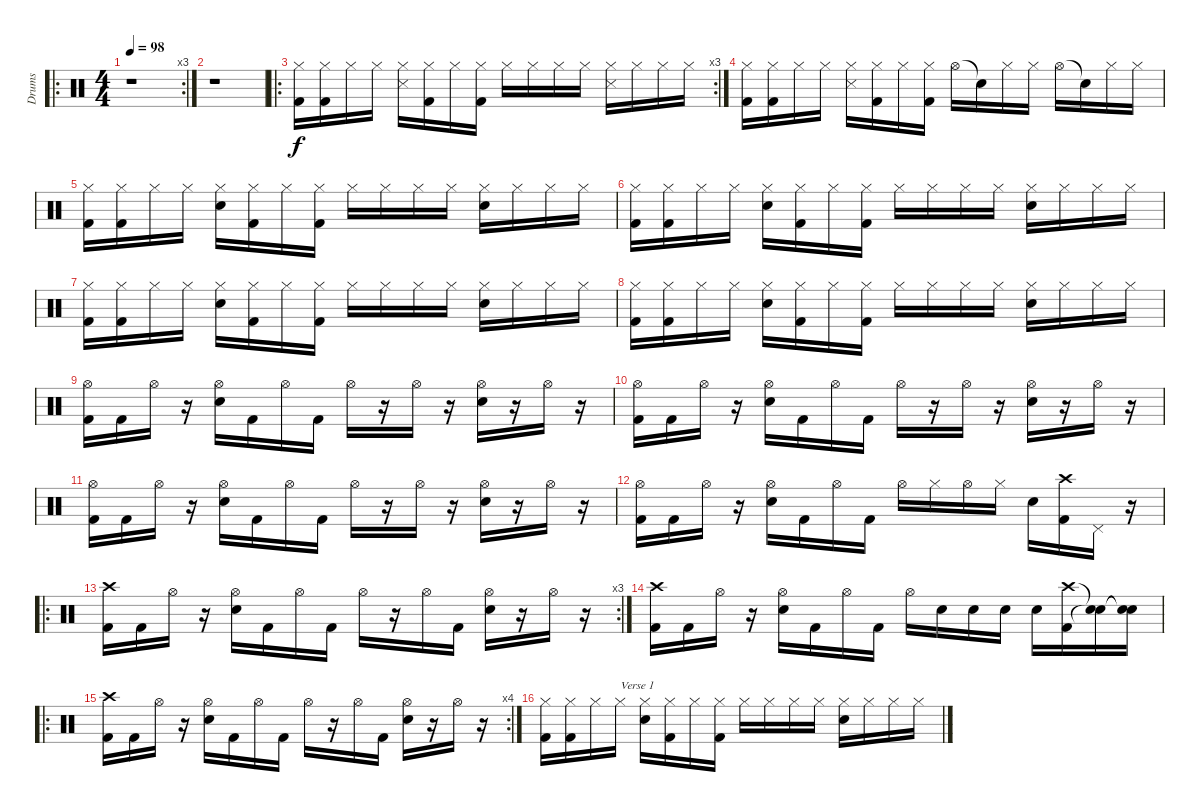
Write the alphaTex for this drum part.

\track ("Drums" "Drums") {instrument percussion}
\staff {score}
\articulation defaults
\ro
\rc 3
\ts (4 4)
\tempo 98
\clef neutral
\ks c
r.1{dy f} |
r.1 |
\ro
\rc 3
("Hi-Hat (closed)" "Kick (hit) 2").16 ("Hi-Hat (closed)" "Kick (hit) 2").16 "Hi-Hat (closed)".16 "Hi-Hat (closed)".16 ("Hi-Hat (closed)" "Snare (side stick) 3").16 ("Hi-Hat (closed)" "Kick (hit) 2").16 "Hi-Hat (closed)".16 ("Hi-Hat (closed)" "Kick (hit) 2").16 "Hi-Hat (closed)".16 "Hi-Hat (closed)".16 "Hi-Hat (closed)".16 "Hi-Hat (closed)".16 ("Hi-Hat (closed)" "Snare (side stick) 3").16 "Hi-Hat (closed)".16 "Hi-Hat (closed)".16 "Hi-Hat (closed)".16 |
("Hi-Hat (closed)" "Kick (hit) 2").16 ("Hi-Hat (closed)" "Kick (hit) 2").16 "Hi-Hat (closed)".16 "Hi-Hat (closed)".16 ("Hi-Hat (closed)" "Snare (side stick) 3").16 ("Hi-Hat (closed)" "Kick (hit) 2").16 "Hi-Hat (closed)".16 ("Hi-Hat (closed)" "Kick (hit) 2").16 "Hi-Hat (open)".16 "Snare (hit)"{t}.16 "Hi-Hat (closed)".16 "Hi-Hat (closed)".16 "Hi-Hat (open)".16 "Snare (hit)"{t}.16 "Hi-Hat (closed)".16 "Hi-Hat (closed)".16 |
("Hi-Hat (closed)" "Kick (hit) 2").16 ("Hi-Hat (closed)" "Kick (hit) 2").16 "Hi-Hat (closed)".16 "Hi-Hat (closed)".16 ("Hi-Hat (closed)" "Snare (hit) 2").16 ("Hi-Hat (closed)" "Kick (hit) 2").16 "Hi-Hat (closed)".16 ("Hi-Hat (closed)" "Kick (hit) 2").16 "Hi-Hat (closed)".16 "Hi-Hat (closed)".16 "Hi-Hat (closed)".16 "Hi-Hat (closed)".16 ("Hi-Hat (closed)" "Snare (hit) 2").16 "Hi-Hat (closed)".16 "Hi-Hat (closed)".16 "Hi-Hat (closed)".16 |
("Hi-Hat (closed)" "Kick (hit) 2").16 ("Hi-Hat (closed)" "Kick (hit) 2").16 "Hi-Hat (closed)".16 "Hi-Hat (closed)".16 ("Hi-Hat (closed)" "Snare (hit) 2").16 ("Hi-Hat (closed)" "Kick (hit) 2").16 "Hi-Hat (closed)".16 ("Hi-Hat (closed)" "Kick (hit) 2").16 "Hi-Hat (closed)".16 "Hi-Hat (closed)".16 "Hi-Hat (closed)".16 "Hi-Hat (closed)".16 ("Hi-Hat (closed)" "Snare (hit) 2").16 "Hi-Hat (closed)".16 "Hi-Hat (closed)".16 "Hi-Hat (closed)".16 |
("Hi-Hat (closed)" "Kick (hit) 2").16 ("Hi-Hat (closed)" "Kick (hit) 2").16 "Hi-Hat (closed)".16 "Hi-Hat (closed)".16 ("Hi-Hat (closed)" "Snare (hit) 2").16 ("Hi-Hat (closed)" "Kick (hit) 2").16 "Hi-Hat (closed)".16 ("Hi-Hat (closed)" "Kick (hit) 2").16 "Hi-Hat (closed)".16 "Hi-Hat (closed)".16 "Hi-Hat (closed)".16 "Hi-Hat (closed)".16 ("Hi-Hat (closed)" "Snare (hit) 2").16 "Hi-Hat (closed)".16 "Hi-Hat (closed)".16 "Hi-Hat (closed)".16 |
("Hi-Hat (closed)" "Kick (hit) 2").16 ("Hi-Hat (closed)" "Kick (hit) 2").16 "Hi-Hat (closed)".16 "Hi-Hat (closed)".16 ("Hi-Hat (closed)" "Snare (hit) 2").16 ("Hi-Hat (closed)" "Kick (hit) 2").16 "Hi-Hat (closed)".16 ("Hi-Hat (closed)" "Kick (hit) 2").16 "Hi-Hat (closed)".16 "Hi-Hat (closed)".16 "Hi-Hat (closed)".16 "Hi-Hat (closed)".16 ("Hi-Hat (closed)" "Snare (hit) 2").16 "Hi-Hat (closed)".16 "Hi-Hat (closed)".16 "Hi-Hat (closed)".16 |
("Hi-Hat (open)" "Kick (hit) 2").16 "Kick (hit) 2".16 "Hi-Hat (open)".16 r.16 ("Hi-Hat (open)" "Snare (hit) 2").16 "Kick (hit) 2".16 "Hi-Hat (open)".16 "Kick (hit) 2".16 "Hi-Hat (open)".16 r.16 "Hi-Hat (open)".16 r.16 ("Hi-Hat (open)" "Snare (hit) 2").16 r.16 "Hi-Hat (open)".16 r.16 |
("Hi-Hat (open)" "Kick (hit) 2").16 "Kick (hit) 2".16 "Hi-Hat (open)".16 r.16 ("Hi-Hat (open)" "Snare (hit) 2").16 "Kick (hit) 2".16 "Hi-Hat (open)".16 "Kick (hit) 2".16 "Hi-Hat (open)".16 r.16 "Hi-Hat (open)".16 r.16 ("Hi-Hat (open)" "Snare (hit) 2").16 r.16 "Hi-Hat (open)".16 r.16 |
("Hi-Hat (open)" "Kick (hit) 2").16 "Kick (hit) 2".16 "Hi-Hat (open)".16 r.16 ("Hi-Hat (open)" "Snare (hit) 2").16 "Kick (hit) 2".16 "Hi-Hat (open)".16 "Kick (hit) 2".16 "Hi-Hat (open)".16 r.16 "Hi-Hat (open)".16 r.16 ("Hi-Hat (open)" "Snare (hit) 2").16 r.16 "Hi-Hat (open)".16 r.16 |
("Hi-Hat (open)" "Kick (hit) 2").16 "Kick (hit) 2".16 "Hi-Hat (open)".16 r.16 ("Hi-Hat (open)" "Snare (hit) 2").16 "Kick (hit) 2".16 "Hi-Hat (open)".16 "Kick (hit) 2".16 "Hi-Hat (open)".16 "Hi-Hat (closed)".16 "Hi-Hat (open)".16 "Hi-Hat (closed)".16 "Snare (hit) 2".16 ("Crash high (hit)" "Kick (hit) 2").16 "Pedal Hi-Hat (hit)".16 r.16 |
\ro
\rc 3
("Crash high (hit)" "Kick (hit) 2").16 "Kick (hit) 2".16 "Hi-Hat (open)".16 r.16 ("Hi-Hat (open)" "Snare (hit) 2").16 "Kick (hit) 2".16 "Hi-Hat (open)".16 "Kick (hit) 2".16 "Hi-Hat (open)".16 r.16 "Hi-Hat (open)".16 "Kick (hit) 2".16 ("Hi-Hat (open)" "Snare (hit) 2").16 r.16 "Hi-Hat (open)".16 r.16 |
("Crash high (hit)" "Kick (hit) 2").16 "Kick (hit) 2".16 "Hi-Hat (open)".16 r.16 ("Hi-Hat (open)" "Snare (hit) 2").16 "Kick (hit) 2".16 "Hi-Hat (open)".16 "Kick (hit) 2".16 "Hi-Hat (open)".16 "Snare (hit) 2".16 "Snare (hit) 2".16 "Snare (hit) 2".16 "Snare (hit) 2".16 ("Crash high (hit)" "Kick (hit) 2").16 ("Snare (hit)"{t} "Snare (hit)"{t}).16 ("Snare (hit)"{t} "Snare (hit)"{t}).16 |
\ro
\rc 4
("Crash high (hit)" "Kick (hit) 2").16 "Kick (hit) 2".16 "Hi-Hat (open)".16 r.16 ("Hi-Hat (open)" "Snare (hit) 2").16 "Kick (hit) 2".16 "Hi-Hat (open)".16 "Kick (hit) 2".16 "Hi-Hat (open)".16 r.16 "Hi-Hat (open)".16 "Kick (hit) 2".16 ("Hi-Hat (open)" "Snare (hit) 2").16 r.16 "Hi-Hat (open)".16 r.16 |
("Hi-Hat (closed)" "Kick (hit) 2").16 ("Hi-Hat (closed)" "Kick (hit) 2").16 "Hi-Hat (closed)".16 "Hi-Hat (closed)".16{txt "Verse 1"} ("Hi-Hat (closed)" "Snare (hit) 2").16 ("Hi-Hat (closed)" "Kick (hit) 2").16 "Hi-Hat (closed)".16 ("Hi-Hat (closed)" "Kick (hit) 2").16 "Hi-Hat (closed)".16 "Hi-Hat (closed)".16 "Hi-Hat (closed)".16 "Hi-Hat (closed)".16 ("Hi-Hat (closed)" "Snare (hit) 2").16 "Hi-Hat (closed)".16 "Hi-Hat (closed)".16 "Hi-Hat (closed)".16
